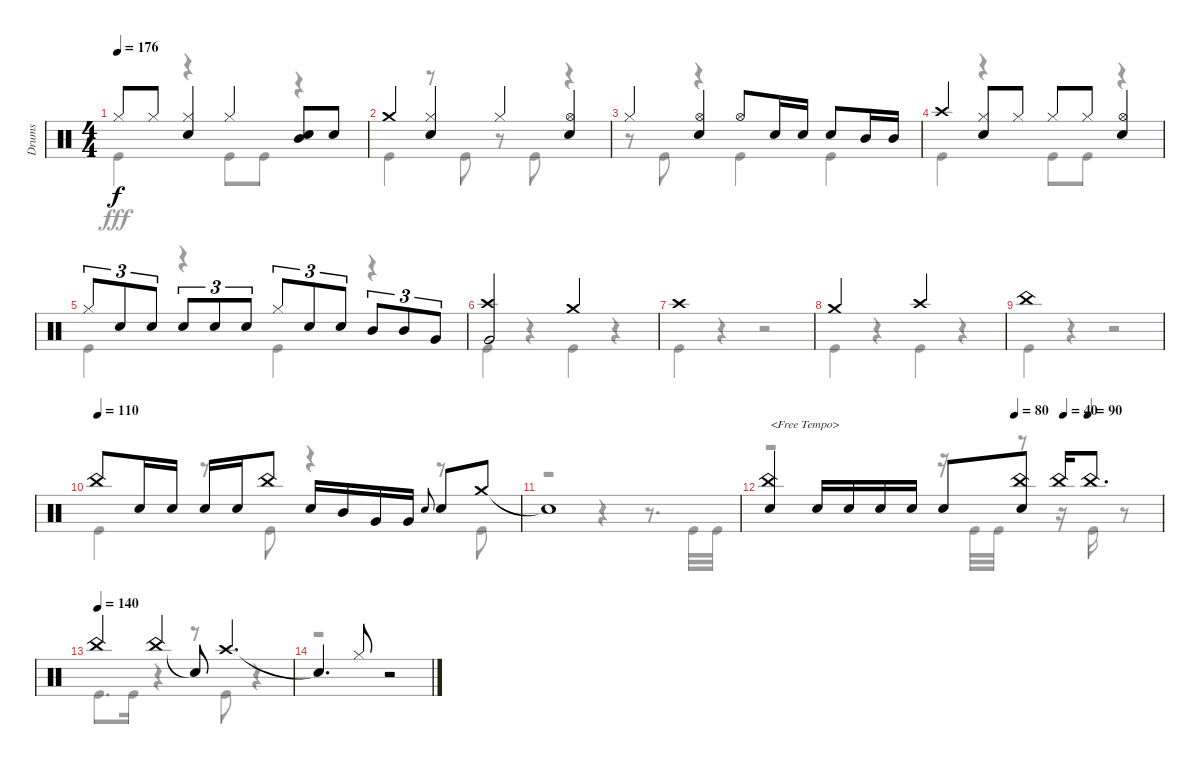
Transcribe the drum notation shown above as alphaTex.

\track ("Drums" "Drums") {instrument percussion}
\staff {score}
\articulation defaults
\voice
\ts (4 4)
\tempo 176
\clef neutral
\ks c "Hi-Hat (closed)".8{dy f} "Hi-Hat (closed)".8
("Hi-Hat (closed)" "Snare (hit) 2").4 "Hi-Hat (closed)".4 ("Mid Tom (hit)" "Snare (hit) 2").8 "Snare (hit) 2".8 |
"Crash medium (hit)".4 ("Hi-Hat (closed)" "Snare (hit) 2").4 "Hi-Hat (closed)".4 ("Hi-Hat (open)" "Snare (hit) 2").4 |
"Hi-Hat (closed)".4 ("Hi-Hat (open)" "Snare (hit) 2").4 "Hi-Hat (open)".8 "Snare (hit) 2".16 "Snare (hit) 2".16 "Snare (hit) 2".8 "Mid Tom (hit)".16 "Mid Tom (hit)".16 |
"Crash high (hit)".4 ("Hi-Hat (closed)" "Snare (hit) 2").8 "Hi-Hat (closed)".8 "Hi-Hat (closed)".8 "Hi-Hat (closed)".8 ("Hi-Hat (open)" "Snare (hit) 2").4 |
"Hi-Hat (closed)".8{tu (3 2)} "Snare (hit) 2".8{tu (3 2)} "Snare (hit) 2".8{tu (3 2)} "Snare (hit) 2".8{tu (3 2)} "Snare (hit) 2".8{tu (3 2)} "Snare (hit) 2".8{tu (3 2)} "Hi-Hat (closed)".8{tu (3 2)} "Snare (hit) 2".8{tu (3 2)} "Snare (hit) 2".8{tu (3 2)} "Mid Tom (hit)".8{tu (3 2)} "Mid Tom (hit)".8{tu (3 2)} "Very Low Tom (hit)".8{tu (3 2)} |
("Crash high (hit)" "Very Low Tom (hit)").2 "Crash medium (hit)".2 |
"Crash high (hit)".1 |
"Crash medium (hit)".2 "Crash high (hit)".2 |
"China (hit)".1 |
\tempo (110)
"China (hit)".8 "Snare (hit) 2".16 "Snare (hit) 2".16 "Snare (hit) 2".16 "Snare (hit) 2".16 "China (hit)".8 "Snare (hit) 2".16 "Mid Tom (hit)".16 "Very Low Tom (hit)".16 "Very Low Tom (hit)".16 "Snare (hit) 2".8{gr onbeat} "Snare (hit) 2".8 "Crash medium (hit)".8 |
"Snare (hit)"{t}.1 |
\tempo (80 0.625)
\tempo (40 0.75)
\tempo (90 0.8125)
("China (hit)" "Snare (hit) 2").4{txt "<Free Tempo>"} "Snare (hit) 2".16 "Snare (hit) 2".16 "Snare (hit) 2".16 "Snare (hit) 2".16 "Snare (hit) 2".8 ("China (hit)" "Snare (hit) 2").8 "China (hit)".16 "China (hit)".8{d} |
\tempo (140)
"China (hit)".4 "China (hit)".4 "Snare (hit)"{t}.8 "Crash high (hit)".4{d} |
"Snare (hit)"{t}.4{d} "Hi-Hat (closed)".8 r.2
\voice
\clef neutral
\ottava regular
\simile none
\ks c "Kick (hit)".4{dy fff}
r.4 "Kick (hit)".8 "Kick (hit)".8 r.4 |
"Kick (hit)".4 r.8 "Kick (hit)".8 r.8 "Kick (hit)".8 r.4 |
r.8 "Kick (hit)".8 r.4 "Kick (hit)".4 "Kick (hit)".4 |
"Kick (hit)".4 r.4 "Kick (hit)".8 "Kick (hit)".8 r.4 |
"Kick (hit)".4 r.4 "Kick (hit)".4 r.4 |
"Kick (hit)".4 r.4 "Kick (hit)".4 r.4 |
"Kick (hit)".4 r.4 r.2 |
"Kick (hit)".4 r.4 "Kick (hit)".4 r.4 |
"Kick (hit)".4 r.4 r.2 |
"Kick (hit)".4 r.8 "Kick (hit)".8 r.4 r.8 "Kick (hit)".8 |
r.2 r.4 r.8{d} "Kick (hit)".32 "Kick (hit)".32 |
r.2 r.16 "Kick (hit)".32 "Kick (hit)".32 r.8 r.16 "Kick (hit)".16 r.8 |
"Kick (hit)".8{d} "Kick (hit)".16 r.4 r.8 "Kick (hit)".8 r.4 |
r.1
